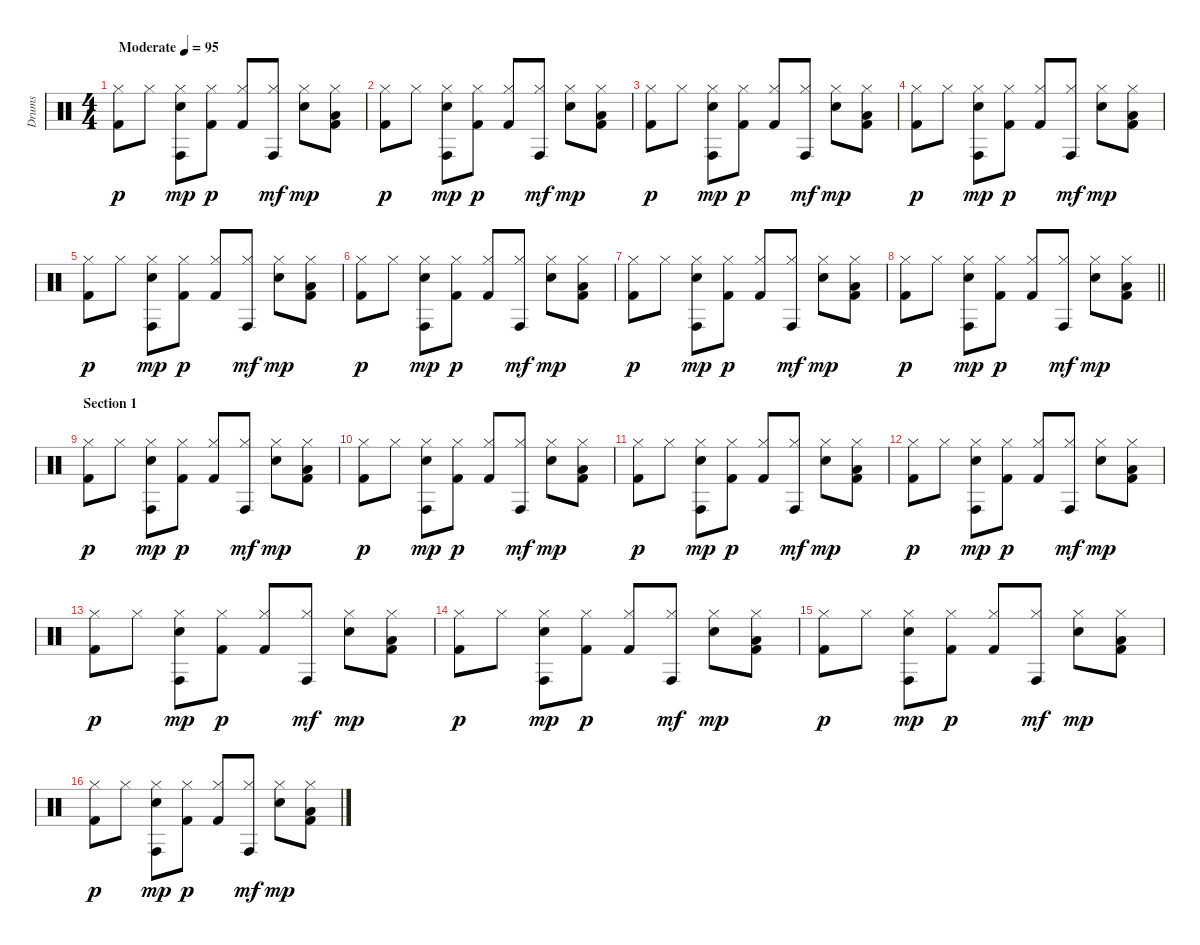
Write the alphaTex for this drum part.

\track ("Drums" "Drums") {instrument percussion}
\staff {score}
\articulation defaults
\ts (4 4)
\tempo (95 "Moderate")
\clef neutral
\ks c
("Hi-Hat (closed)" "Kick (hit) 2").8{dy p} "Hi-Hat (closed)".8 ("Hi-Hat (closed)" "Conga high (hit)" "Electric Snare (hit)").8{dy mp} ("Hi-Hat (closed)" "Kick (hit) 2").8{dy p} ("Hi-Hat (closed)" "Kick (hit) 2").8 ("Hi-Hat (closed)" "Conga high (hit)").8{dy mf} ("Hi-Hat (closed)" "Electric Snare (hit)").8{dy mp} ("Hi-Hat (closed)" "Low Tom (hit)" "Kick (hit) 2").8 |
("Hi-Hat (closed)" "Kick (hit) 2").8{dy p} "Hi-Hat (closed)".8 ("Hi-Hat (closed)" "Conga high (hit)" "Electric Snare (hit)").8{dy mp} ("Hi-Hat (closed)" "Kick (hit) 2").8{dy p} ("Hi-Hat (closed)" "Kick (hit) 2").8 ("Hi-Hat (closed)" "Conga high (hit)").8{dy mf} ("Hi-Hat (closed)" "Electric Snare (hit)").8{dy mp} ("Hi-Hat (closed)" "Low Tom (hit)" "Kick (hit) 2").8 |
("Hi-Hat (closed)" "Kick (hit) 2").8{dy p} "Hi-Hat (closed)".8 ("Hi-Hat (closed)" "Conga high (hit)" "Electric Snare (hit)").8{dy mp} ("Hi-Hat (closed)" "Kick (hit) 2").8{dy p} ("Hi-Hat (closed)" "Kick (hit) 2").8 ("Hi-Hat (closed)" "Conga high (hit)").8{dy mf} ("Hi-Hat (closed)" "Electric Snare (hit)").8{dy mp} ("Hi-Hat (closed)" "Low Tom (hit)" "Kick (hit) 2").8 |
("Hi-Hat (closed)" "Kick (hit) 2").8{dy p} "Hi-Hat (closed)".8 ("Hi-Hat (closed)" "Conga high (hit)" "Electric Snare (hit)").8{dy mp} ("Hi-Hat (closed)" "Kick (hit) 2").8{dy p} ("Hi-Hat (closed)" "Kick (hit) 2").8 ("Hi-Hat (closed)" "Conga high (hit)").8{dy mf} ("Hi-Hat (closed)" "Electric Snare (hit)").8{dy mp} ("Hi-Hat (closed)" "Low Tom (hit)" "Kick (hit) 2").8 |
("Hi-Hat (closed)" "Kick (hit) 2").8{dy p} "Hi-Hat (closed)".8 ("Hi-Hat (closed)" "Conga high (hit)" "Electric Snare (hit)").8{dy mp} ("Hi-Hat (closed)" "Kick (hit) 2").8{dy p} ("Hi-Hat (closed)" "Kick (hit) 2").8 ("Hi-Hat (closed)" "Conga high (hit)").8{dy mf} ("Hi-Hat (closed)" "Electric Snare (hit)").8{dy mp} ("Hi-Hat (closed)" "Low Tom (hit)" "Kick (hit) 2").8 |
("Hi-Hat (closed)" "Kick (hit) 2").8{dy p} "Hi-Hat (closed)".8 ("Hi-Hat (closed)" "Conga high (hit)" "Electric Snare (hit)").8{dy mp} ("Hi-Hat (closed)" "Kick (hit) 2").8{dy p} ("Hi-Hat (closed)" "Kick (hit) 2").8 ("Hi-Hat (closed)" "Conga high (hit)").8{dy mf} ("Hi-Hat (closed)" "Electric Snare (hit)").8{dy mp} ("Hi-Hat (closed)" "Low Tom (hit)" "Kick (hit) 2").8 |
("Hi-Hat (closed)" "Kick (hit) 2").8{dy p} "Hi-Hat (closed)".8 ("Hi-Hat (closed)" "Conga high (hit)" "Electric Snare (hit)").8{dy mp} ("Hi-Hat (closed)" "Kick (hit) 2").8{dy p} ("Hi-Hat (closed)" "Kick (hit) 2").8 ("Hi-Hat (closed)" "Conga high (hit)").8{dy mf} ("Hi-Hat (closed)" "Electric Snare (hit)").8{dy mp} ("Hi-Hat (closed)" "Low Tom (hit)" "Kick (hit) 2").8 |
\barLineRight lightlight
("Hi-Hat (closed)" "Kick (hit) 2").8{dy p} "Hi-Hat (closed)".8 ("Hi-Hat (closed)" "Conga high (hit)" "Electric Snare (hit)").8{dy mp} ("Hi-Hat (closed)" "Kick (hit) 2").8{dy p} ("Hi-Hat (closed)" "Kick (hit) 2").8 ("Hi-Hat (closed)" "Conga high (hit)").8{dy mf} ("Hi-Hat (closed)" "Electric Snare (hit)").8{dy mp} ("Hi-Hat (closed)" "Low Tom (hit)" "Kick (hit) 2").8 |
\section ("" "Section 1")
("Hi-Hat (closed)" "Kick (hit) 2").8{dy p} "Hi-Hat (closed)".8 ("Hi-Hat (closed)" "Conga high (hit)" "Electric Snare (hit)").8{dy mp} ("Hi-Hat (closed)" "Kick (hit) 2").8{dy p} ("Hi-Hat (closed)" "Kick (hit) 2").8 ("Hi-Hat (closed)" "Conga high (hit)").8{dy mf} ("Hi-Hat (closed)" "Electric Snare (hit)").8{dy mp} ("Hi-Hat (closed)" "Low Tom (hit)" "Kick (hit) 2").8 |
("Hi-Hat (closed)" "Kick (hit) 2").8{dy p} "Hi-Hat (closed)".8 ("Hi-Hat (closed)" "Conga high (hit)" "Electric Snare (hit)").8{dy mp} ("Hi-Hat (closed)" "Kick (hit) 2").8{dy p} ("Hi-Hat (closed)" "Kick (hit) 2").8 ("Hi-Hat (closed)" "Conga high (hit)").8{dy mf} ("Hi-Hat (closed)" "Electric Snare (hit)").8{dy mp} ("Hi-Hat (closed)" "Low Tom (hit)" "Kick (hit) 2").8 |
("Hi-Hat (closed)" "Kick (hit) 2").8{dy p} "Hi-Hat (closed)".8 ("Hi-Hat (closed)" "Conga high (hit)" "Electric Snare (hit)").8{dy mp} ("Hi-Hat (closed)" "Kick (hit) 2").8{dy p} ("Hi-Hat (closed)" "Kick (hit) 2").8 ("Hi-Hat (closed)" "Conga high (hit)").8{dy mf} ("Hi-Hat (closed)" "Electric Snare (hit)").8{dy mp} ("Hi-Hat (closed)" "Low Tom (hit)" "Kick (hit) 2").8 |
("Hi-Hat (closed)" "Kick (hit) 2").8{dy p} "Hi-Hat (closed)".8 ("Hi-Hat (closed)" "Conga high (hit)" "Electric Snare (hit)").8{dy mp} ("Hi-Hat (closed)" "Kick (hit) 2").8{dy p} ("Hi-Hat (closed)" "Kick (hit) 2").8 ("Hi-Hat (closed)" "Conga high (hit)").8{dy mf} ("Hi-Hat (closed)" "Electric Snare (hit)").8{dy mp} ("Hi-Hat (closed)" "Low Tom (hit)" "Kick (hit) 2").8 |
("Hi-Hat (closed)" "Kick (hit) 2").8{dy p} "Hi-Hat (closed)".8 ("Hi-Hat (closed)" "Conga high (hit)" "Electric Snare (hit)").8{dy mp} ("Hi-Hat (closed)" "Kick (hit) 2").8{dy p} ("Hi-Hat (closed)" "Kick (hit) 2").8 ("Hi-Hat (closed)" "Conga high (hit)").8{dy mf} ("Hi-Hat (closed)" "Electric Snare (hit)").8{dy mp} ("Hi-Hat (closed)" "Low Tom (hit)" "Kick (hit) 2").8 |
("Hi-Hat (closed)" "Kick (hit) 2").8{dy p} "Hi-Hat (closed)".8 ("Hi-Hat (closed)" "Conga high (hit)" "Electric Snare (hit)").8{dy mp} ("Hi-Hat (closed)" "Kick (hit) 2").8{dy p} ("Hi-Hat (closed)" "Kick (hit) 2").8 ("Hi-Hat (closed)" "Conga high (hit)").8{dy mf} ("Hi-Hat (closed)" "Electric Snare (hit)").8{dy mp} ("Hi-Hat (closed)" "Low Tom (hit)" "Kick (hit) 2").8 |
("Hi-Hat (closed)" "Kick (hit) 2").8{dy p} "Hi-Hat (closed)".8 ("Hi-Hat (closed)" "Conga high (hit)" "Electric Snare (hit)").8{dy mp} ("Hi-Hat (closed)" "Kick (hit) 2").8{dy p} ("Hi-Hat (closed)" "Kick (hit) 2").8 ("Hi-Hat (closed)" "Conga high (hit)").8{dy mf} ("Hi-Hat (closed)" "Electric Snare (hit)").8{dy mp} ("Hi-Hat (closed)" "Low Tom (hit)" "Kick (hit) 2").8 |
("Hi-Hat (closed)" "Kick (hit) 2").8{dy p} "Hi-Hat (closed)".8 ("Hi-Hat (closed)" "Conga high (hit)" "Electric Snare (hit)").8{dy mp} ("Hi-Hat (closed)" "Kick (hit) 2").8{dy p} ("Hi-Hat (closed)" "Kick (hit) 2").8 ("Hi-Hat (closed)" "Conga high (hit)").8{dy mf} ("Hi-Hat (closed)" "Electric Snare (hit)").8{dy mp} ("Hi-Hat (closed)" "Low Tom (hit)" "Kick (hit) 2").8
